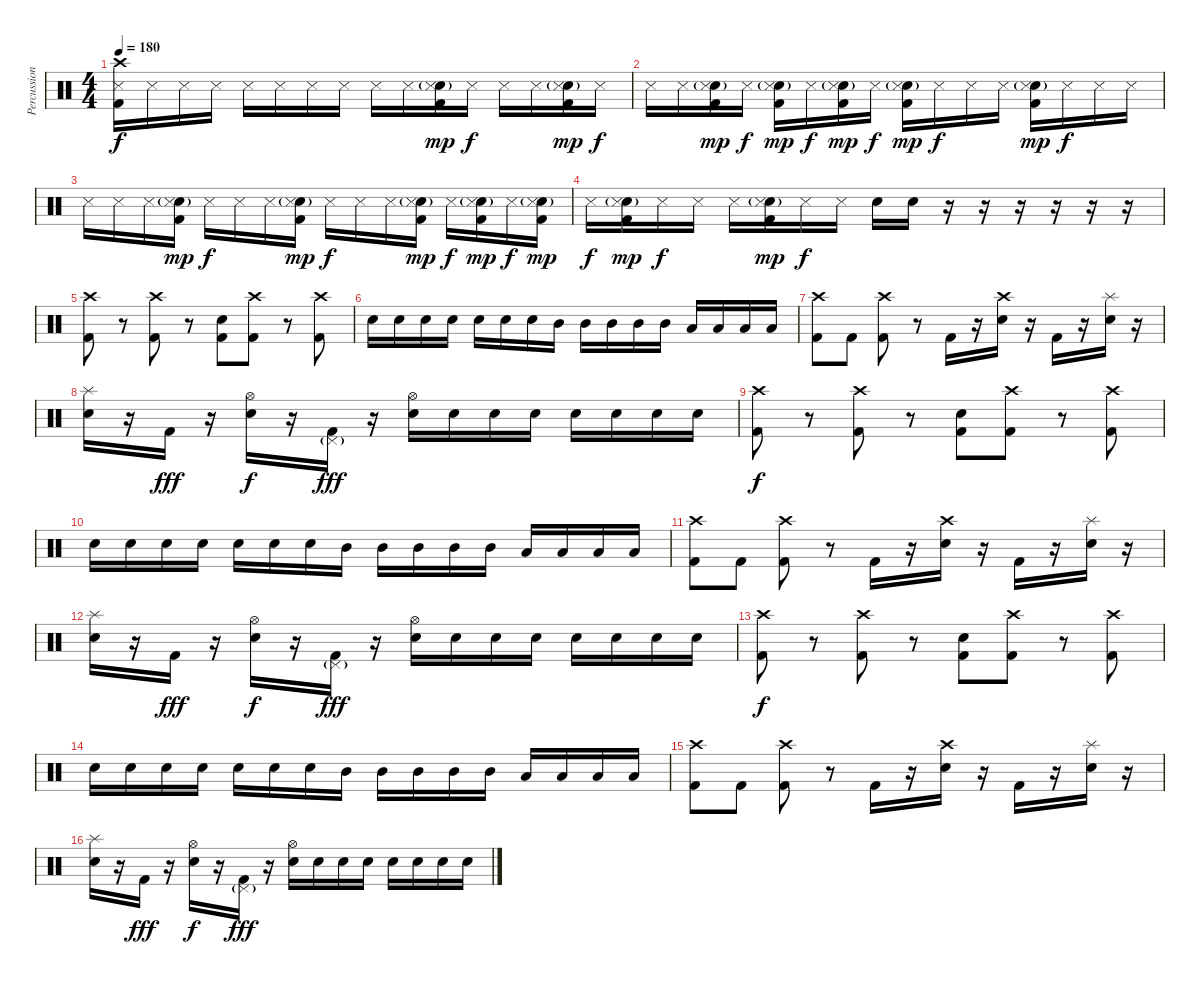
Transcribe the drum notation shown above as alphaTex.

\track ("Percussion" "Percussion") {instrument percussion}
\staff {score}
\articulation defaults
\ts (4 4)
\tempo 180
\clef neutral
\ks c
("Crash high (hit)" "Snare (side stick) 3" "Kick (hit) 2").16{dy f} "Snare (side stick) 3".16 "Snare (side stick) 3".16 "Snare (side stick) 3".16 "Snare (side stick) 3".16 "Snare (side stick) 3".16 "Snare (side stick) 3".16 "Snare (side stick) 3".16 "Snare (side stick) 3".16 "Snare (side stick) 3".16 ("Snare (hit) 2"{g} "Snare (side stick) 3" "Kick (hit) 2").16{dy mp} "Snare (side stick) 3".16{dy f} "Snare (side stick) 3".16 "Snare (side stick) 3".16 ("Snare (hit) 2"{g} "Snare (side stick) 3" "Kick (hit) 2").16{dy mp} "Snare (side stick) 3".16{dy f} |
"Snare (side stick) 3".16 "Snare (side stick) 3".16 ("Snare (hit) 2"{g} "Snare (side stick) 3" "Kick (hit) 2").16{dy mp} "Snare (side stick) 3".16{dy f} ("Snare (hit) 2"{g} "Snare (side stick) 3" "Kick (hit) 2").16{dy mp} "Snare (side stick) 3".16{dy f} ("Snare (hit) 2"{g} "Snare (side stick) 3" "Kick (hit) 2").16{dy mp} "Snare (side stick) 3".16{dy f} ("Snare (hit) 2"{g} "Snare (side stick) 3" "Kick (hit) 2").16{dy mp} "Snare (side stick) 3".16{dy f} "Snare (side stick) 3".16 "Snare (side stick) 3".16 ("Snare (hit) 2"{g} "Snare (side stick) 3" "Kick (hit) 2").16{dy mp} "Snare (side stick) 3".16{dy f} "Snare (side stick) 3".16 "Snare (side stick) 3".16 |
"Snare (side stick) 3".16 "Snare (side stick) 3".16 "Snare (side stick) 3".16 ("Snare (hit) 2"{g} "Snare (side stick) 3" "Kick (hit) 2").16{dy mp} "Snare (side stick) 3".16{dy f} "Snare (side stick) 3".16 "Snare (side stick) 3".16 ("Snare (hit) 2"{g} "Snare (side stick) 3" "Kick (hit) 2").16{dy mp} "Snare (side stick) 3".16{dy f} "Snare (side stick) 3".16 "Snare (side stick) 3".16 ("Snare (hit) 2"{g} "Snare (side stick) 3" "Kick (hit) 2").16{dy mp} "Snare (side stick) 3".16{dy f} ("Snare (hit) 2"{g} "Snare (side stick) 3" "Kick (hit) 2").16{dy mp} "Snare (side stick) 3".16{dy f} ("Snare (hit) 2"{g} "Snare (side stick) 3" "Kick (hit) 2").16{dy mp} |
"Snare (side stick) 3".16{dy f} ("Snare (hit) 2"{g} "Snare (side stick) 3" "Kick (hit) 2").16{dy mp} "Snare (side stick) 3".16{dy f} "Snare (side stick) 3".16 "Snare (side stick) 3".16 ("Snare (hit) 2"{g} "Snare (side stick) 3" "Kick (hit) 2").16{dy mp} "Snare (side stick) 3".16{dy f} "Snare (side stick) 3".16 "Electric Snare (hit)".16 "Electric Snare (hit)".16 r.16 r.16 r.16 r.16 r.16 r.16 |
("Crash high (hit)" "Kick (hit) 2").8 r.8 ("Crash high (hit)" "Kick (hit) 2").8 r.8 ("Electric Snare (hit)" "Kick (hit) 2").8 ("Crash high (hit)" "Kick (hit) 2").8 r.8 ("Crash high (hit)" "Kick (hit) 2").8 |
"Electric Snare (hit)".16 "Electric Snare (hit)".16 "Electric Snare (hit)".16 "Electric Snare (hit)".16 "Electric Snare (hit)".16 "Electric Snare (hit)".16 "Electric Snare (hit)".16 "Mid Tom (hit)".16 "Mid Tom (hit)".16 "Mid Tom (hit)".16 "Mid Tom (hit)".16 "Mid Tom (hit)".16 "Low Tom (hit)".16 "Low Tom (hit)".16 "Low Tom (hit)".16 "Low Tom (hit)".16 |
("Crash high (hit)" "Kick (hit) 2").8 "Kick (hit) 2".8 ("Crash high (hit)" "Kick (hit) 2").8 r.8 "Kick (hit) 2".16 r.16 ("Crash high (hit)" "Electric Snare (hit)").16 r.16 "Kick (hit) 2".16 r.16 ("Splash (hit)" "Electric Snare (hit)").16 r.16 |
("Splash (hit)" "Electric Snare (hit)").16 r.16 "Kick (hit) 2".16{dy fff} r.16 ("Hi-Hat (open)" "Electric Snare (hit)").16{dy f} r.16 ("Pedal Hi-Hat (hit)"{g} "Kick (hit) 2").16{dy fff} r.16 ("Hi-Hat (open)" "Electric Snare (hit)").16 "Electric Snare (hit)".16 "Electric Snare (hit)".16 "Electric Snare (hit)".16 "Electric Snare (hit)".16 "Electric Snare (hit)".16 "Electric Snare (hit)".16 "Electric Snare (hit)".16 |
("Crash high (hit)" "Kick (hit) 2").8{dy f} r.8 ("Crash high (hit)" "Kick (hit) 2").8 r.8 ("Electric Snare (hit)" "Kick (hit) 2").8 ("Crash high (hit)" "Kick (hit) 2").8 r.8 ("Crash high (hit)" "Kick (hit) 2").8 |
"Electric Snare (hit)".16 "Electric Snare (hit)".16 "Electric Snare (hit)".16 "Electric Snare (hit)".16 "Electric Snare (hit)".16 "Electric Snare (hit)".16 "Electric Snare (hit)".16 "Mid Tom (hit)".16 "Mid Tom (hit)".16 "Mid Tom (hit)".16 "Mid Tom (hit)".16 "Mid Tom (hit)".16 "Low Tom (hit)".16 "Low Tom (hit)".16 "Low Tom (hit)".16 "Low Tom (hit)".16 |
("Crash high (hit)" "Kick (hit) 2").8 "Kick (hit) 2".8 ("Crash high (hit)" "Kick (hit) 2").8 r.8 "Kick (hit) 2".16 r.16 ("Crash high (hit)" "Electric Snare (hit)").16 r.16 "Kick (hit) 2".16 r.16 ("Splash (hit)" "Electric Snare (hit)").16 r.16 |
("Splash (hit)" "Electric Snare (hit)").16 r.16 "Kick (hit) 2".16{dy fff} r.16 ("Hi-Hat (open)" "Electric Snare (hit)").16{dy f} r.16 ("Pedal Hi-Hat (hit)"{g} "Kick (hit) 2").16{dy fff} r.16 ("Hi-Hat (open)" "Electric Snare (hit)").16 "Electric Snare (hit)".16 "Electric Snare (hit)".16 "Electric Snare (hit)".16 "Electric Snare (hit)".16 "Electric Snare (hit)".16 "Electric Snare (hit)".16 "Electric Snare (hit)".16 |
("Crash high (hit)" "Kick (hit) 2").8{dy f} r.8 ("Crash high (hit)" "Kick (hit) 2").8 r.8 ("Electric Snare (hit)" "Kick (hit) 2").8 ("Crash high (hit)" "Kick (hit) 2").8 r.8 ("Crash high (hit)" "Kick (hit) 2").8 |
"Electric Snare (hit)".16 "Electric Snare (hit)".16 "Electric Snare (hit)".16 "Electric Snare (hit)".16 "Electric Snare (hit)".16 "Electric Snare (hit)".16 "Electric Snare (hit)".16 "Mid Tom (hit)".16 "Mid Tom (hit)".16 "Mid Tom (hit)".16 "Mid Tom (hit)".16 "Mid Tom (hit)".16 "Low Tom (hit)".16 "Low Tom (hit)".16 "Low Tom (hit)".16 "Low Tom (hit)".16 |
("Crash high (hit)" "Kick (hit) 2").8 "Kick (hit) 2".8 ("Crash high (hit)" "Kick (hit) 2").8 r.8 "Kick (hit) 2".16 r.16 ("Crash high (hit)" "Electric Snare (hit)").16 r.16 "Kick (hit) 2".16 r.16 ("Splash (hit)" "Electric Snare (hit)").16 r.16 |
("Splash (hit)" "Electric Snare (hit)").16 r.16 "Kick (hit) 2".16{dy fff} r.16 ("Hi-Hat (open)" "Electric Snare (hit)").16{dy f} r.16 ("Pedal Hi-Hat (hit)"{g} "Kick (hit) 2").16{dy fff} r.16 ("Hi-Hat (open)" "Electric Snare (hit)").16 "Electric Snare (hit)".16 "Electric Snare (hit)".16 "Electric Snare (hit)".16 "Electric Snare (hit)".16 "Electric Snare (hit)".16 "Electric Snare (hit)".16 "Electric Snare (hit)".16
